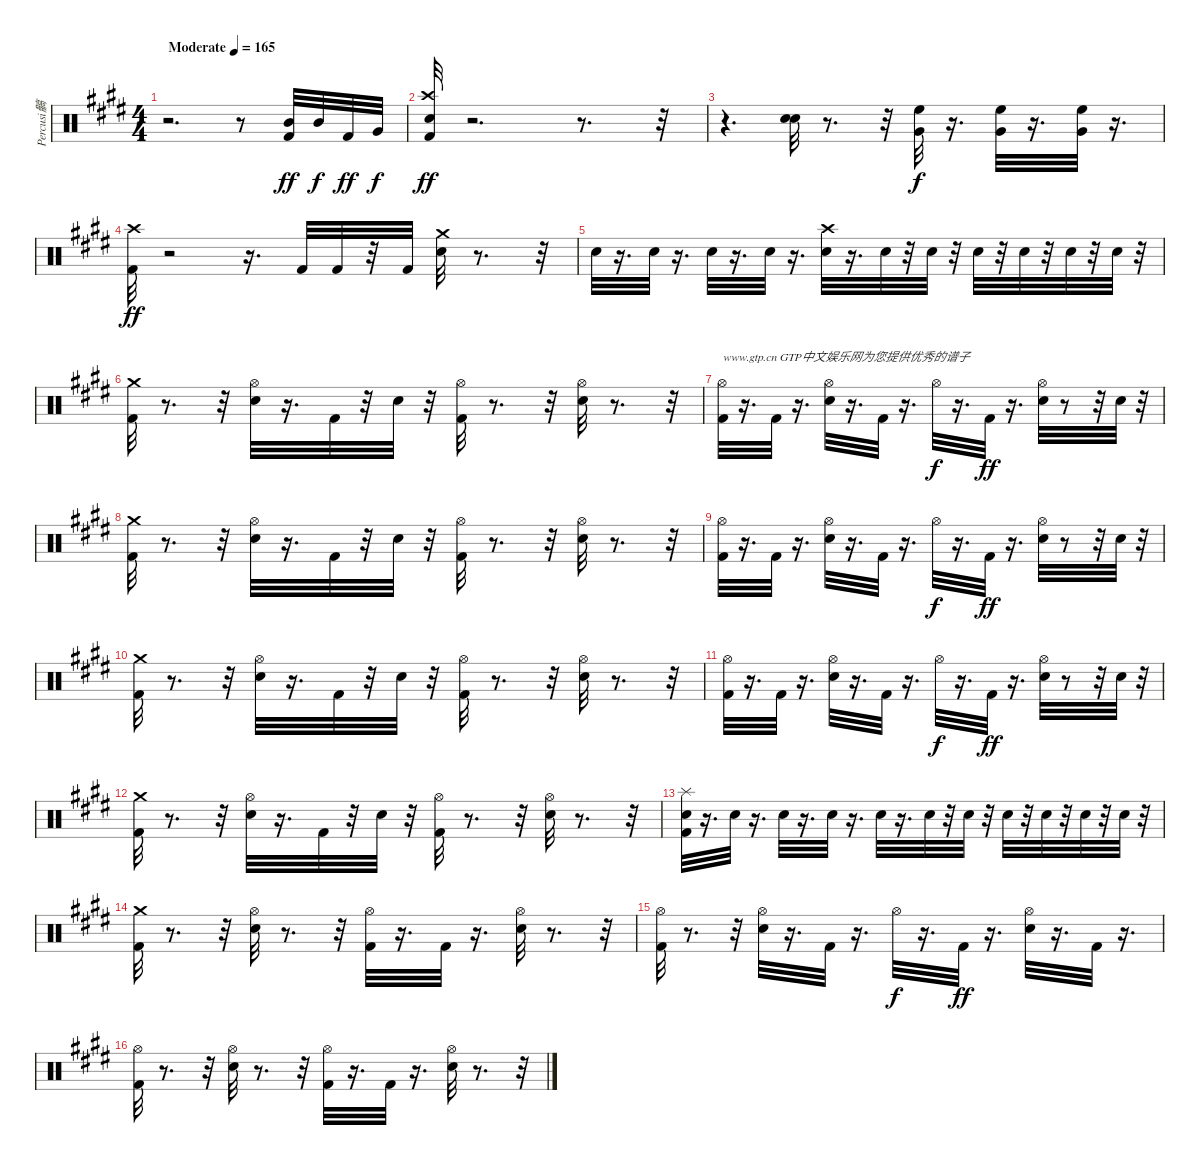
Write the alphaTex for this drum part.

\track ("Percusi髇" "Percusi髇") {instrument percussion}
\staff {score}
\articulation defaults
\ts (4 4)
\tempo (165 "Moderate")
\clef neutral
\ks e
r.2{d dy ff} r.8 ("Mid Tom (hit)" "Kick (hit) 2").32{volume 15 balance 8} "Mid Tom (hit)".32{dy f} "Kick (hit) 2".32{dy ff} "Very Low Tom (hit)".32{dy f} |
("Crash high (hit)" "Kick (hit) 2" "Electric Snare (hit)").32{dy ff} r.2{d} r.8{d} r.32 |
r.4{d} ("Electric Snare (hit)" "Electric Snare (hit)").32 r.8{d} r.32 ("High Floor Tom (hit)" "Very Low Tom (hit)").32{dy f} r.16{d} ("High Floor Tom (hit)" "Very Low Tom (hit)").32 r.16{d} ("High Floor Tom (hit)" "Very Low Tom (hit)").32 r.16{d} |
("Crash high (hit)" "Kick (hit) 2").32{dy ff} r.2 r.16{d} "Kick (hit) 2".32 "Kick (hit) 2".32 r.32 "Kick (hit) 2".32 ("Crash medium (hit)" "Electric Snare (hit)").32 r.8{d} r.32 |
"Electric Snare (hit)".32 r.16{d} "Electric Snare (hit)".32 r.16{d} "Electric Snare (hit)".32 r.16{d} "Electric Snare (hit)".32 r.16{d} ("Crash high (hit)" "Electric Snare (hit)").32 r.16{d} "Electric Snare (hit)".32 r.32 "Electric Snare (hit)".32 r.32 "Electric Snare (hit)".32 r.32 "Electric Snare (hit)".32 r.32 "Electric Snare (hit)".32 r.32 "Electric Snare (hit)".32 r.32 |
("Crash medium (hit)" "Kick (hit) 2").32{volume 9} r.8{d} r.32 ("Electric Snare (hit)" "Hi-Hat (open)").32 r.16{d} "Kick (hit) 2".32 r.32 "Electric Snare (hit)".32 r.32 ("Kick (hit) 2" "Hi-Hat (open)").32 r.8{d} r.32 ("Electric Snare (hit)" "Hi-Hat (open)").32 r.8{d} r.32 |
("Kick (hit) 2" "Hi-Hat (open)").32{txt "www.gtp.cn GTP中文娱乐网为您提供优秀的谱子"} r.16{d} "Kick (hit) 2".32 r.16{d} ("Electric Snare (hit)" "Hi-Hat (open)").32 r.16{d} "Kick (hit) 2".32 r.16{d} "Hi-Hat (open)".32{dy f} r.16{d} "Kick (hit) 2".32{dy ff} r.16{d} ("Electric Snare (hit)" "Hi-Hat (open)").32 r.8 r.32 "Electric Snare (hit)".32 r.32 |
("Crash medium (hit)" "Kick (hit) 2").32 r.8{d} r.32 ("Electric Snare (hit)" "Hi-Hat (open)").32 r.16{d} "Kick (hit) 2".32 r.32 "Electric Snare (hit)".32 r.32 ("Kick (hit) 2" "Hi-Hat (open)").32 r.8{d} r.32 ("Electric Snare (hit)" "Hi-Hat (open)").32 r.8{d} r.32 |
("Kick (hit) 2" "Hi-Hat (open)").32 r.16{d} "Kick (hit) 2".32 r.16{d} ("Electric Snare (hit)" "Hi-Hat (open)").32 r.16{d} "Kick (hit) 2".32 r.16{d} "Hi-Hat (open)".32{dy f} r.16{d} "Kick (hit) 2".32{dy ff} r.16{d} ("Electric Snare (hit)" "Hi-Hat (open)").32 r.8 r.32 "Electric Snare (hit)".32 r.32 |
("Crash medium (hit)" "Kick (hit) 2").32 r.8{d} r.32 ("Electric Snare (hit)" "Hi-Hat (open)").32 r.16{d} "Kick (hit) 2".32 r.32 "Electric Snare (hit)".32 r.32 ("Kick (hit) 2" "Hi-Hat (open)").32 r.8{d} r.32 ("Electric Snare (hit)" "Hi-Hat (open)").32 r.8{d} r.32 |
("Kick (hit) 2" "Hi-Hat (open)").32 r.16{d} "Kick (hit) 2".32 r.16{d} ("Electric Snare (hit)" "Hi-Hat (open)").32 r.16{d} "Kick (hit) 2".32 r.16{d} "Hi-Hat (open)".32{dy f} r.16{d} "Kick (hit) 2".32{dy ff} r.16{d} ("Electric Snare (hit)" "Hi-Hat (open)").32 r.8 r.32 "Electric Snare (hit)".32 r.32 |
("Crash medium (hit)" "Kick (hit) 2").32 r.8{d} r.32 ("Electric Snare (hit)" "Hi-Hat (open)").32 r.16{d} "Kick (hit) 2".32 r.32 "Electric Snare (hit)".32 r.32 ("Kick (hit) 2" "Hi-Hat (open)").32 r.8{d} r.32 ("Electric Snare (hit)" "Hi-Hat (open)").32 r.8{d} r.32 |
("Splash (hit)" "Kick (hit) 2" "Electric Snare (hit)").32 r.16{d} "Electric Snare (hit)".32 r.16{d} "Electric Snare (hit)".32 r.16{d} "Electric Snare (hit)".32 r.16{d} "Electric Snare (hit)".32 r.16{d} "Electric Snare (hit)".32 r.32 "Electric Snare (hit)".32 r.32 "Electric Snare (hit)".32 r.32 "Electric Snare (hit)".32 r.32 "Electric Snare (hit)".32 r.32 "Electric Snare (hit)".32 r.32 |
("Crash medium (hit)" "Kick (hit) 2").32 r.8{d} r.32 ("Electric Snare (hit)" "Hi-Hat (open)").32 r.8{d} r.32 ("Kick (hit) 2" "Hi-Hat (open)").32 r.16{d} "Kick (hit) 2".32 r.16{d} ("Electric Snare (hit)" "Hi-Hat (open)").32 r.8{d} r.32 |
("Kick (hit) 2" "Hi-Hat (open)").32 r.8{d} r.32 ("Electric Snare (hit)" "Hi-Hat (open)").32 r.16{d} "Kick (hit) 2".32 r.16{d} "Hi-Hat (open)".32{dy f} r.16{d} "Kick (hit) 2".32{dy ff} r.16{d} ("Electric Snare (hit)" "Hi-Hat (open)").32 r.16{d} "Kick (hit) 2".32 r.16{d} |
("Hi-Hat (open)" "Kick (hit) 2").32 r.8{d} r.32 ("Electric Snare (hit)" "Hi-Hat (open)").32 r.8{d} r.32 ("Kick (hit) 2" "Hi-Hat (open)").32 r.16{d} "Kick (hit) 2".32 r.16{d} ("Electric Snare (hit)" "Hi-Hat (open)").32 r.8{d} r.32
